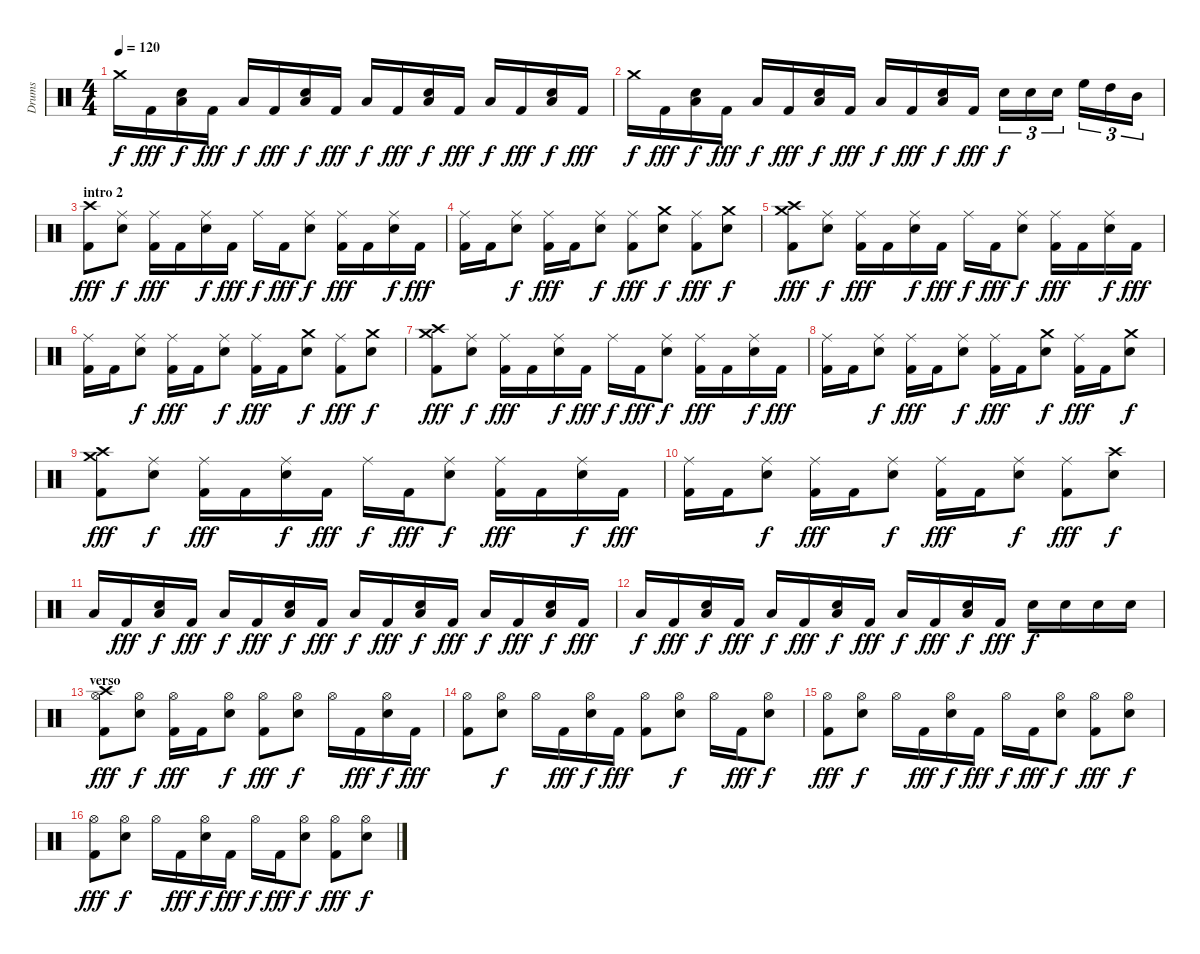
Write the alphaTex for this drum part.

\track ("Drums" "Drums") {instrument percussion}
\staff {score}
\articulation defaults
\ts (4 4)
\tempo 120
\clef neutral
\ks c "Crash medium (hit)".16{dy f} "Kick (hit) 2".16{dy fff}
("Low Floor Tom (hit)" "Electric Snare (hit)").16{dy f} "Kick (hit) 2".16{dy fff} "Low Floor Tom (hit)".16{dy f} "Kick (hit) 2".16{dy fff} ("Low Floor Tom (hit)" "Electric Snare (hit)").16{dy f} "Kick (hit) 2".16{dy fff} "Low Floor Tom (hit)".16{dy f} "Kick (hit) 2".16{dy fff} ("Low Floor Tom (hit)" "Electric Snare (hit)").16{dy f} "Kick (hit) 2".16{dy fff} "Low Floor Tom (hit)".16{dy f} "Kick (hit) 2".16{dy fff} ("Low Floor Tom (hit)" "Electric Snare (hit)").16{dy f} "Kick (hit) 2".16{dy fff} |
"Crash medium (hit)".16{dy f} "Kick (hit) 2".16{dy fff} ("Low Floor Tom (hit)" "Electric Snare (hit)").16{dy f} "Kick (hit) 2".16{dy fff} "Low Floor Tom (hit)".16{dy f} "Kick (hit) 2".16{dy fff} ("Low Floor Tom (hit)" "Electric Snare (hit)").16{dy f} "Kick (hit) 2".16{dy fff} "Low Floor Tom (hit)".16{dy f} "Kick (hit) 2".16{dy fff} ("Low Floor Tom (hit)" "Electric Snare (hit)").16{dy f} "Kick (hit) 2".16{dy fff} "Electric Snare (hit)".16{tu (3 2) dy f} "Electric Snare (hit)".16{tu (3 2)} "Electric Snare (hit)".16{tu (3 2)} "High Floor Tom (hit)".16{tu (3 2)} "High Tom (hit)".16{tu (3 2)} "Mid Tom (hit)".16{tu (3 2)} |
\section ("" "intro 2")
("Crash high (hit)" "Kick (hit) 2").8{dy fff} ("Ride (middle)" "Electric Snare (hit)").8{dy f} ("Ride (middle)" "Kick (hit) 2").16{dy fff} "Kick (hit) 2".16 ("Ride (middle)" "Electric Snare (hit)").16{dy f} "Kick (hit) 2".16{dy fff} "Ride (middle)".16{dy f} "Kick (hit) 2".16{dy fff} ("Ride (middle)" "Electric Snare (hit)").8{dy f} ("Ride (middle)" "Kick (hit) 2").16{dy fff} "Kick (hit) 2".16 ("Ride (middle)" "Electric Snare (hit)").16{dy f} "Kick (hit) 2".16{dy fff} |
("Ride (middle)" "Kick (hit) 2").16 "Kick (hit) 2".16 ("Ride (middle)" "Electric Snare (hit)").8{dy f} ("Ride (middle)" "Kick (hit) 2").16{dy fff} "Kick (hit) 2".16 ("Ride (middle)" "Electric Snare (hit)").8{dy f} ("Ride (middle)" "Kick (hit) 2").8{dy fff} ("Crash medium (hit)" "Electric Snare (hit)").8{dy f} ("Ride (middle)" "Kick (hit) 2").8{dy fff} ("Crash medium (hit)" "Electric Snare (hit)").8{dy f} |
("Crash high (hit)" "Crash medium (hit)" "Kick (hit) 2").8{dy fff} ("Ride (middle)" "Electric Snare (hit)").8{dy f} ("Ride (middle)" "Kick (hit) 2").16{dy fff} "Kick (hit) 2".16 ("Ride (middle)" "Electric Snare (hit)").16{dy f} "Kick (hit) 2".16{dy fff} "Ride (middle)".16{dy f} "Kick (hit) 2".16{dy fff} ("Ride (middle)" "Electric Snare (hit)").8{dy f} ("Ride (middle)" "Kick (hit) 2").16{dy fff} "Kick (hit) 2".16 ("Ride (middle)" "Electric Snare (hit)").16{dy f} "Kick (hit) 2".16{dy fff} |
("Ride (middle)" "Kick (hit) 2").16 "Kick (hit) 2".16 ("Ride (middle)" "Electric Snare (hit)").8{dy f} ("Ride (middle)" "Kick (hit) 2").16{dy fff} "Kick (hit) 2".16 ("Ride (middle)" "Electric Snare (hit)").8{dy f} ("Ride (middle)" "Kick (hit) 2").16{dy fff} "Kick (hit) 2".16 ("Crash medium (hit)" "Electric Snare (hit)").8{dy f} ("Ride (middle)" "Kick (hit) 2").8{dy fff} ("Crash medium (hit)" "Electric Snare (hit)").8{dy f} |
("Crash high (hit)" "Crash medium (hit)" "Kick (hit) 2").8{dy fff} ("Ride (middle)" "Electric Snare (hit)").8{dy f} ("Ride (middle)" "Kick (hit) 2").16{dy fff} "Kick (hit) 2".16 ("Ride (middle)" "Electric Snare (hit)").16{dy f} "Kick (hit) 2".16{dy fff} "Ride (middle)".16{dy f} "Kick (hit) 2".16{dy fff} ("Ride (middle)" "Electric Snare (hit)").8{dy f} ("Ride (middle)" "Kick (hit) 2").16{dy fff} "Kick (hit) 2".16 ("Ride (middle)" "Electric Snare (hit)").16{dy f} "Kick (hit) 2".16{dy fff} |
("Ride (middle)" "Kick (hit) 2").16 "Kick (hit) 2".16 ("Ride (middle)" "Electric Snare (hit)").8{dy f} ("Ride (middle)" "Kick (hit) 2").16{dy fff} "Kick (hit) 2".16 ("Ride (middle)" "Electric Snare (hit)").8{dy f} ("Ride (middle)" "Kick (hit) 2").16{dy fff} "Kick (hit) 2".16 ("Crash medium (hit)" "Electric Snare (hit)").8{dy f} ("Ride (middle)" "Kick (hit) 2").16{dy fff} "Kick (hit) 2".16 ("Crash medium (hit)" "Electric Snare (hit)").8{dy f} |
("Crash high (hit)" "Crash medium (hit)" "Kick (hit) 2").8{dy fff} ("Ride (middle)" "Electric Snare (hit)").8{dy f} ("Ride (middle)" "Kick (hit) 2").16{dy fff} "Kick (hit) 2".16 ("Ride (middle)" "Electric Snare (hit)").16{dy f} "Kick (hit) 2".16{dy fff} "Ride (middle)".16{dy f} "Kick (hit) 2".16{dy fff} ("Ride (middle)" "Electric Snare (hit)").8{dy f} ("Ride (middle)" "Kick (hit) 2").16{dy fff} "Kick (hit) 2".16 ("Ride (middle)" "Electric Snare (hit)").16{dy f} "Kick (hit) 2".16{dy fff} |
("Ride (middle)" "Kick (hit) 2").16 "Kick (hit) 2".16 ("Ride (middle)" "Electric Snare (hit)").8{dy f} ("Ride (middle)" "Kick (hit) 2").16{dy fff} "Kick (hit) 2".16 ("Ride (middle)" "Electric Snare (hit)").8{dy f} ("Ride (middle)" "Kick (hit) 2").16{dy fff} "Kick (hit) 2".16 ("Ride (middle)" "Electric Snare (hit)").8{dy f} ("Ride (middle)" "Kick (hit) 2").8{dy fff} ("Crash high (hit)" "Electric Snare (hit)").8{dy f} |
"Low Floor Tom (hit)".16 "Kick (hit) 2".16{dy fff} ("Low Floor Tom (hit)" "Electric Snare (hit)").16{dy f} "Kick (hit) 2".16{dy fff} "Low Floor Tom (hit)".16{dy f} "Kick (hit) 2".16{dy fff} ("Low Floor Tom (hit)" "Electric Snare (hit)").16{dy f} "Kick (hit) 2".16{dy fff} "Low Floor Tom (hit)".16{dy f} "Kick (hit) 2".16{dy fff} ("Low Floor Tom (hit)" "Electric Snare (hit)").16{dy f} "Kick (hit) 2".16{dy fff} "Low Floor Tom (hit)".16{dy f} "Kick (hit) 2".16{dy fff} ("Low Floor Tom (hit)" "Electric Snare (hit)").16{dy f} "Kick (hit) 2".16{dy fff} |
"Low Floor Tom (hit)".16{dy f} "Kick (hit) 2".16{dy fff} ("Low Floor Tom (hit)" "Electric Snare (hit)").16{dy f} "Kick (hit) 2".16{dy fff} "Low Floor Tom (hit)".16{dy f} "Kick (hit) 2".16{dy fff} ("Low Floor Tom (hit)" "Electric Snare (hit)").16{dy f} "Kick (hit) 2".16{dy fff} "Low Floor Tom (hit)".16{dy f} "Kick (hit) 2".16{dy fff} ("Low Floor Tom (hit)" "Electric Snare (hit)").16{dy f} "Kick (hit) 2".16{dy fff} "Electric Snare (hit)".16{dy f} "Electric Snare (hit)".16 "Electric Snare (hit)".16 "Electric Snare (hit)".16 |
\section ("" "verso")
("Crash high (hit)" "Hi-Hat (open)" "Kick (hit) 2").8{dy fff} ("Hi-Hat (open)" "Electric Snare (hit)").8{dy f} ("Hi-Hat (open)" "Kick (hit) 2").16{dy fff} "Kick (hit) 2".16 ("Hi-Hat (open)" "Electric Snare (hit)").8{dy f} ("Hi-Hat (open)" "Kick (hit) 2").8{dy fff} ("Hi-Hat (open)" "Electric Snare (hit)").8{dy f} "Hi-Hat (open)".16 "Kick (hit) 2".16{dy fff} ("Hi-Hat (open)" "Electric Snare (hit)").16{dy f} "Kick (hit) 2".16{dy fff} |
("Hi-Hat (open)" "Kick (hit) 2").8 ("Hi-Hat (open)" "Electric Snare (hit)").8{dy f} "Hi-Hat (open)".16 "Kick (hit) 2".16{dy fff} ("Hi-Hat (open)" "Electric Snare (hit)").16{dy f} "Kick (hit) 2".16{dy fff} ("Hi-Hat (open)" "Kick (hit) 2").8 ("Hi-Hat (open)" "Electric Snare (hit)").8{dy f} "Hi-Hat (open)".16 "Kick (hit) 2".16{dy fff} ("Hi-Hat (open)" "Electric Snare (hit)").8{dy f} |
("Hi-Hat (open)" "Kick (hit) 2").8{dy fff} ("Hi-Hat (open)" "Electric Snare (hit)").8{dy f} "Hi-Hat (open)".16 "Kick (hit) 2".16{dy fff} ("Hi-Hat (open)" "Electric Snare (hit)").16{dy f} "Kick (hit) 2".16{dy fff} "Hi-Hat (open)".16{dy f} "Kick (hit) 2".16{dy fff} ("Hi-Hat (open)" "Electric Snare (hit)").8{dy f} ("Hi-Hat (open)" "Kick (hit) 2").8{dy fff} ("Hi-Hat (open)" "Electric Snare (hit)").8{dy f} |
("Hi-Hat (open)" "Kick (hit) 2").8{dy fff} ("Hi-Hat (open)" "Electric Snare (hit)").8{dy f} "Hi-Hat (open)".16 "Kick (hit) 2".16{dy fff} ("Hi-Hat (open)" "Electric Snare (hit)").16{dy f} "Kick (hit) 2".16{dy fff} "Hi-Hat (open)".16{dy f} "Kick (hit) 2".16{dy fff} ("Hi-Hat (open)" "Electric Snare (hit)").8{dy f} ("Hi-Hat (open)" "Kick (hit) 2").8{dy fff} ("Hi-Hat (open)" "Electric Snare (hit)").8{dy f}
